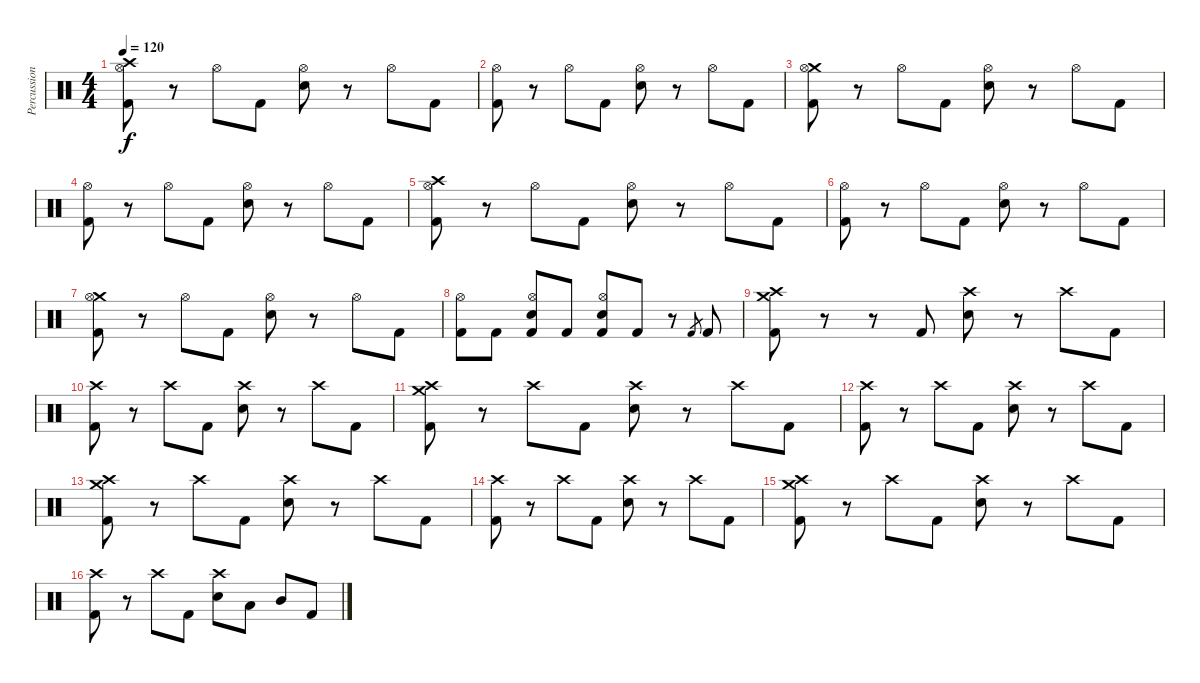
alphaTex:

\track ("Percussion" "Percussion") {instrument percussion}
\staff {score}
\articulation defaults
\ts (4 4)
\tempo 120
\clef neutral
\ks c
("Kick (hit) 2" "Crash high (hit)" "Hi-Hat (open)").8{dy f} r.8 "Hi-Hat (open)".8 "Kick (hit) 2".8 ("Electric Snare (hit)" "Hi-Hat (open)").8 r.8 "Hi-Hat (open)".8 "Kick (hit) 2".8 |
("Kick (hit) 2" "Hi-Hat (open)").8 r.8 "Hi-Hat (open)".8 "Kick (hit) 2".8 ("Electric Snare (hit)" "Hi-Hat (open)").8 r.8 "Hi-Hat (open)".8 "Kick (hit) 2".8 |
("Kick (hit) 2" "Crash medium (hit)" "Hi-Hat (open)").8 r.8 "Hi-Hat (open)".8 "Kick (hit) 2".8 ("Electric Snare (hit)" "Hi-Hat (open)").8 r.8 "Hi-Hat (open)".8 "Kick (hit) 2".8 |
("Kick (hit) 2" "Hi-Hat (open)").8 r.8 "Hi-Hat (open)".8 "Kick (hit) 2".8 ("Electric Snare (hit)" "Hi-Hat (open)").8 r.8 "Hi-Hat (open)".8 "Kick (hit) 2".8 |
("Kick (hit) 2" "Crash high (hit)" "Hi-Hat (open)").8 r.8 "Hi-Hat (open)".8 "Kick (hit) 2".8 ("Electric Snare (hit)" "Hi-Hat (open)").8 r.8 "Hi-Hat (open)".8 "Kick (hit) 2".8 |
("Kick (hit) 2" "Hi-Hat (open)").8 r.8 "Hi-Hat (open)".8 "Kick (hit) 2".8 ("Electric Snare (hit)" "Hi-Hat (open)").8 r.8 "Hi-Hat (open)".8 "Kick (hit) 2".8 |
("Kick (hit) 2" "Crash medium (hit)" "Hi-Hat (open)").8 r.8 "Hi-Hat (open)".8 "Kick (hit) 2".8 ("Electric Snare (hit)" "Hi-Hat (open)").8 r.8 "Hi-Hat (open)".8 "Kick (hit) 2".8 |
("Kick (hit) 2" "Hi-Hat (open)").8 "Kick (hit) 2".8 ("Kick (hit) 2" "Electric Snare (hit)" "Hi-Hat (open)").8 "Kick (hit) 2".8 ("Kick (hit) 2" "Electric Snare (hit)" "Hi-Hat (open)").8 "Kick (hit) 2".8 r.8 "Kick (hit) 2".8{gr} "Kick (hit) 2".8 |
("Kick (hit) 2" "Crash medium (hit)" "Crash high (hit)").8 r.8 r.8 "Kick (hit) 2".8 ("Electric Snare (hit)" "Crash high (hit)").8 r.8 "Crash high (hit)".8 "Kick (hit) 2".8 |
("Kick (hit) 2" "Crash high (hit)").8 r.8 "Crash high (hit)".8 "Kick (hit) 2".8 ("Electric Snare (hit)" "Crash high (hit)").8 r.8 "Crash high (hit)".8 "Kick (hit) 2".8 |
("Kick (hit) 2" "Crash medium (hit)" "Crash high (hit)").8 r.8 "Crash high (hit)".8 "Kick (hit) 2".8 ("Electric Snare (hit)" "Crash high (hit)").8 r.8 "Crash high (hit)".8 "Kick (hit) 2".8 |
("Kick (hit) 2" "Crash high (hit)").8 r.8 "Crash high (hit)".8 "Kick (hit) 2".8 ("Electric Snare (hit)" "Crash high (hit)").8 r.8 "Crash high (hit)".8 "Kick (hit) 2".8 |
("Kick (hit) 2" "Crash medium (hit)" "Crash high (hit)").8 r.8 "Crash high (hit)".8 "Kick (hit) 2".8 ("Electric Snare (hit)" "Crash high (hit)").8 r.8 "Crash high (hit)".8 "Kick (hit) 2".8 |
("Kick (hit) 2" "Crash high (hit)").8 r.8 "Crash high (hit)".8 "Kick (hit) 2".8 ("Electric Snare (hit)" "Crash high (hit)").8 r.8 "Crash high (hit)".8 "Kick (hit) 2".8 |
("Kick (hit) 2" "Crash medium (hit)" "Crash high (hit)").8 r.8 "Crash high (hit)".8 "Kick (hit) 2".8 ("Electric Snare (hit)" "Crash high (hit)").8 r.8 "Crash high (hit)".8 "Kick (hit) 2".8 |
("Kick (hit) 2" "Crash high (hit)").8 r.8 "Crash high (hit)".8 "Kick (hit) 2".8 ("Electric Snare (hit)" "Crash high (hit)").8 "Low Tom (hit)".8 "Mid Tom (hit)".8 "Kick (hit) 2".8
